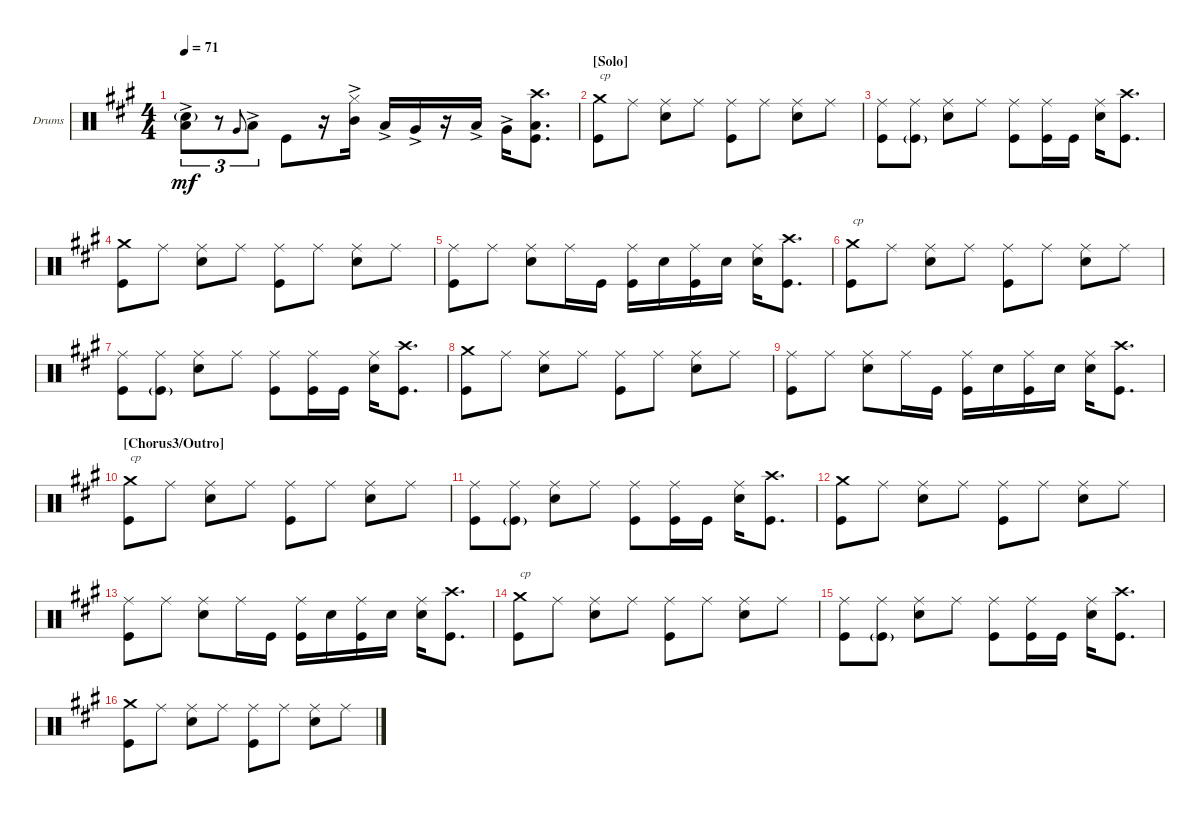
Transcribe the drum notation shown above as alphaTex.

\defaultSystemsLayout 4
\bracketExtendMode groupsimilarinstruments
\firstSystemTrackNameOrientation horizontal
\otherSystemsTrackNameOrientation horizontal
\track ("Drumkit" "Drums") {instrument percussion}
\staff {score}
\articulation defaults
\ts (4 4)
\tempo 71
\clef neutral
\ks a
("Snare (hit) 2"{g} "Low Tom (hit)"{ac}).8{tu (3 2) dy mf} r.8{tu (3 2)} "Very Low Tom (hit)".8{gr onbeat} "Low Tom (hit)"{ac}.8{tu (3 2)} "Kick (hit)".8 r.16 ("Mid Tom (hit)"{ac} "Hi-Hat (closed)").16 "Low Tom (hit)"{ac}.16 "Very Low Tom (hit)"{ac}.16 r.16 "Low Tom (hit)"{ac}.16 "Very Low Tom (hit)"{ac}.16 ("Crash high (hit)" "Kick (hit)" "Low Tom (hit)").8{d} |
\section ("" "[Solo]")
("Kick (hit)" "Crash medium (hit)").8{txt "cp"} "Ride (middle)".8 ("Ride (middle)" "Snare (hit) 2").8 "Ride (middle)".8 ("Ride (middle)" "Kick (hit)").8 "Ride (middle)".8 ("Ride (middle)" "Snare (hit) 2").8 "Ride (middle)".8 |
("Ride (middle)" "Kick (hit)").8 ("Ride (middle)" "Kick (hit)"{g}).8 ("Ride (middle)" "Snare (hit) 2").8 "Ride (middle)".8 ("Ride (middle)" "Kick (hit)").8 ("Ride (middle)" "Kick (hit)").16 "Kick (hit)".16 ("Ride (middle)" "Snare (hit) 2").16 ("Crash high (hit)" "Kick (hit)").8{d} |
("Kick (hit)" "Crash medium (hit)").8 "Ride (middle)".8 ("Ride (middle)" "Snare (hit) 2").8 "Ride (middle)".8 ("Ride (middle)" "Kick (hit)").8 "Ride (middle)".8 ("Ride (middle)" "Snare (hit) 2").8 "Ride (middle)".8 |
("Ride (middle)" "Kick (hit)").8 "Ride (middle)".8 ("Ride (middle)" "Snare (hit) 2").8 "Ride (middle)".16 "Kick (hit)".16 ("Ride (middle)" "Kick (hit)").16 "Snare (hit) 2".16 ("Ride (middle)" "Kick (hit)").16 "Snare (hit) 2".16 ("Ride (middle)" "Snare (hit) 2").16 ("Crash high (hit)" "Kick (hit)").8{d} |
("Kick (hit)" "Crash medium (hit)").8{txt "cp"} "Ride (middle)".8 ("Ride (middle)" "Snare (hit) 2").8 "Ride (middle)".8 ("Ride (middle)" "Kick (hit)").8 "Ride (middle)".8 ("Ride (middle)" "Snare (hit) 2").8 "Ride (middle)".8 |
("Ride (middle)" "Kick (hit)").8 ("Ride (middle)" "Kick (hit)"{g}).8 ("Ride (middle)" "Snare (hit) 2").8 "Ride (middle)".8 ("Ride (middle)" "Kick (hit)").8 ("Ride (middle)" "Kick (hit)").16 "Kick (hit)".16 ("Ride (middle)" "Snare (hit) 2").16 ("Crash high (hit)" "Kick (hit)").8{d} |
("Kick (hit)" "Crash medium (hit)").8 "Ride (middle)".8 ("Ride (middle)" "Snare (hit) 2").8 "Ride (middle)".8 ("Ride (middle)" "Kick (hit)").8 "Ride (middle)".8 ("Ride (middle)" "Snare (hit) 2").8 "Ride (middle)".8 |
("Ride (middle)" "Kick (hit)").8 "Ride (middle)".8 ("Ride (middle)" "Snare (hit) 2").8 "Ride (middle)".16 "Kick (hit)".16 ("Ride (middle)" "Kick (hit)").16 "Snare (hit) 2".16 ("Ride (middle)" "Kick (hit)").16 "Snare (hit) 2".16 ("Ride (middle)" "Snare (hit) 2").16 ("Crash high (hit)" "Kick (hit)").8{d} |
\section ("" "[Chorus3/Outro]")
("Kick (hit)" "Crash medium (hit)").8{txt "cp"} "Ride (middle)".8 ("Ride (middle)" "Snare (hit) 2").8 "Ride (middle)".8 ("Ride (middle)" "Kick (hit)").8 "Ride (middle)".8 ("Ride (middle)" "Snare (hit) 2").8 "Ride (middle)".8 |
("Ride (middle)" "Kick (hit)").8 ("Ride (middle)" "Kick (hit)"{g}).8 ("Ride (middle)" "Snare (hit) 2").8 "Ride (middle)".8 ("Ride (middle)" "Kick (hit)").8 ("Ride (middle)" "Kick (hit)").16 "Kick (hit)".16 ("Ride (middle)" "Snare (hit) 2").16 ("Crash high (hit)" "Kick (hit)").8{d} |
("Kick (hit)" "Crash medium (hit)").8 "Ride (middle)".8 ("Ride (middle)" "Snare (hit) 2").8 "Ride (middle)".8 ("Ride (middle)" "Kick (hit)").8 "Ride (middle)".8 ("Ride (middle)" "Snare (hit) 2").8 "Ride (middle)".8 |
("Ride (middle)" "Kick (hit)").8 "Ride (middle)".8 ("Ride (middle)" "Snare (hit) 2").8 "Ride (middle)".16 "Kick (hit)".16 ("Ride (middle)" "Kick (hit)").16 "Snare (hit) 2".16 ("Ride (middle)" "Kick (hit)").16 "Snare (hit) 2".16 ("Ride (middle)" "Snare (hit) 2").16 ("Crash high (hit)" "Kick (hit)").8{d} |
("Kick (hit)" "Crash medium (hit)").8{txt "cp"} "Ride (middle)".8 ("Ride (middle)" "Snare (hit) 2").8 "Ride (middle)".8 ("Ride (middle)" "Kick (hit)").8 "Ride (middle)".8 ("Ride (middle)" "Snare (hit) 2").8 "Ride (middle)".8 |
("Ride (middle)" "Kick (hit)").8 ("Ride (middle)" "Kick (hit)"{g}).8 ("Ride (middle)" "Snare (hit) 2").8 "Ride (middle)".8 ("Ride (middle)" "Kick (hit)").8 ("Ride (middle)" "Kick (hit)").16 "Kick (hit)".16 ("Ride (middle)" "Snare (hit) 2").16 ("Crash high (hit)" "Kick (hit)").8{d} |
("Kick (hit)" "Crash medium (hit)").8 "Ride (middle)".8 ("Ride (middle)" "Snare (hit) 2").8 "Ride (middle)".8 ("Ride (middle)" "Kick (hit)").8 "Ride (middle)".8 ("Ride (middle)" "Snare (hit) 2").8 "Ride (middle)".8
